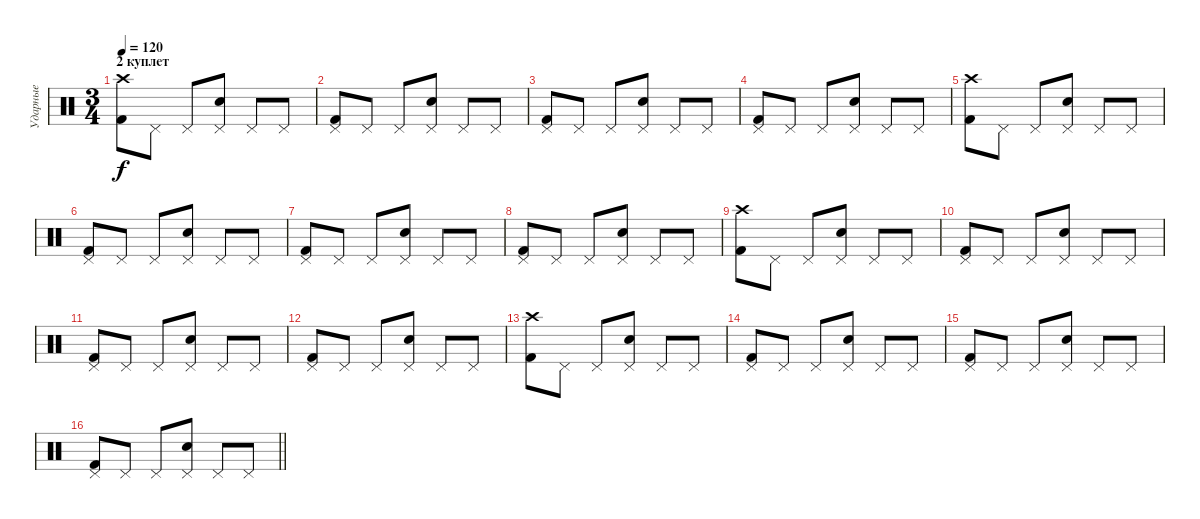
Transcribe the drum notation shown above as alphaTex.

\track ("Ударные" "Ударные") {instrument percussion}
\staff {score}
\articulation defaults
\ts (3 4)
\section ("" "2 куплет")
\tempo 120
\clef neutral
\ks c
("Crash high (hit)" "Kick (hit) 2").8{dy f} "Pedal Hi-Hat (hit)".8 "Pedal Hi-Hat (hit)".8 ("Pedal Hi-Hat (hit)" "Snare (hit) 2").8 "Pedal Hi-Hat (hit)".8 "Pedal Hi-Hat (hit)".8 |
("Pedal Hi-Hat (hit)" "Kick (hit) 2").8 "Pedal Hi-Hat (hit)".8 "Pedal Hi-Hat (hit)".8 ("Pedal Hi-Hat (hit)" "Snare (hit) 2").8 "Pedal Hi-Hat (hit)".8 "Pedal Hi-Hat (hit)".8 |
("Pedal Hi-Hat (hit)" "Kick (hit) 2").8 "Pedal Hi-Hat (hit)".8 "Pedal Hi-Hat (hit)".8 ("Pedal Hi-Hat (hit)" "Snare (hit) 2").8 "Pedal Hi-Hat (hit)".8 "Pedal Hi-Hat (hit)".8 |
("Pedal Hi-Hat (hit)" "Kick (hit) 2").8 "Pedal Hi-Hat (hit)".8 "Pedal Hi-Hat (hit)".8 ("Pedal Hi-Hat (hit)" "Snare (hit) 2").8 "Pedal Hi-Hat (hit)".8 "Pedal Hi-Hat (hit)".8 |
("Crash high (hit)" "Kick (hit) 2").8 "Pedal Hi-Hat (hit)".8 "Pedal Hi-Hat (hit)".8 ("Pedal Hi-Hat (hit)" "Snare (hit) 2").8 "Pedal Hi-Hat (hit)".8 "Pedal Hi-Hat (hit)".8 |
("Pedal Hi-Hat (hit)" "Kick (hit) 2").8 "Pedal Hi-Hat (hit)".8 "Pedal Hi-Hat (hit)".8 ("Pedal Hi-Hat (hit)" "Snare (hit) 2").8 "Pedal Hi-Hat (hit)".8 "Pedal Hi-Hat (hit)".8 |
("Pedal Hi-Hat (hit)" "Kick (hit) 2").8 "Pedal Hi-Hat (hit)".8 "Pedal Hi-Hat (hit)".8 ("Pedal Hi-Hat (hit)" "Snare (hit) 2").8 "Pedal Hi-Hat (hit)".8 "Pedal Hi-Hat (hit)".8 |
("Pedal Hi-Hat (hit)" "Kick (hit) 2").8 "Pedal Hi-Hat (hit)".8 "Pedal Hi-Hat (hit)".8 ("Pedal Hi-Hat (hit)" "Snare (hit) 2").8 "Pedal Hi-Hat (hit)".8 "Pedal Hi-Hat (hit)".8 |
("Crash high (hit)" "Kick (hit) 2").8 "Pedal Hi-Hat (hit)".8 "Pedal Hi-Hat (hit)".8 ("Pedal Hi-Hat (hit)" "Snare (hit) 2").8 "Pedal Hi-Hat (hit)".8 "Pedal Hi-Hat (hit)".8 |
("Pedal Hi-Hat (hit)" "Kick (hit) 2").8 "Pedal Hi-Hat (hit)".8 "Pedal Hi-Hat (hit)".8 ("Pedal Hi-Hat (hit)" "Snare (hit) 2").8 "Pedal Hi-Hat (hit)".8 "Pedal Hi-Hat (hit)".8 |
("Pedal Hi-Hat (hit)" "Kick (hit) 2").8 "Pedal Hi-Hat (hit)".8 "Pedal Hi-Hat (hit)".8 ("Pedal Hi-Hat (hit)" "Snare (hit) 2").8 "Pedal Hi-Hat (hit)".8 "Pedal Hi-Hat (hit)".8 |
("Pedal Hi-Hat (hit)" "Kick (hit) 2").8 "Pedal Hi-Hat (hit)".8 "Pedal Hi-Hat (hit)".8 ("Pedal Hi-Hat (hit)" "Snare (hit) 2").8 "Pedal Hi-Hat (hit)".8 "Pedal Hi-Hat (hit)".8 |
("Crash high (hit)" "Kick (hit) 2").8 "Pedal Hi-Hat (hit)".8 "Pedal Hi-Hat (hit)".8 ("Pedal Hi-Hat (hit)" "Snare (hit) 2").8 "Pedal Hi-Hat (hit)".8 "Pedal Hi-Hat (hit)".8 |
("Pedal Hi-Hat (hit)" "Kick (hit) 2").8 "Pedal Hi-Hat (hit)".8 "Pedal Hi-Hat (hit)".8 ("Pedal Hi-Hat (hit)" "Snare (hit) 2").8 "Pedal Hi-Hat (hit)".8 "Pedal Hi-Hat (hit)".8 |
("Pedal Hi-Hat (hit)" "Kick (hit) 2").8 "Pedal Hi-Hat (hit)".8 "Pedal Hi-Hat (hit)".8 ("Pedal Hi-Hat (hit)" "Snare (hit) 2").8 "Pedal Hi-Hat (hit)".8 "Pedal Hi-Hat (hit)".8 |
\barLineRight lightlight
("Pedal Hi-Hat (hit)" "Kick (hit) 2").8 "Pedal Hi-Hat (hit)".8 "Pedal Hi-Hat (hit)".8 ("Pedal Hi-Hat (hit)" "Snare (hit) 2").8 "Pedal Hi-Hat (hit)".8 "Pedal Hi-Hat (hit)".8
